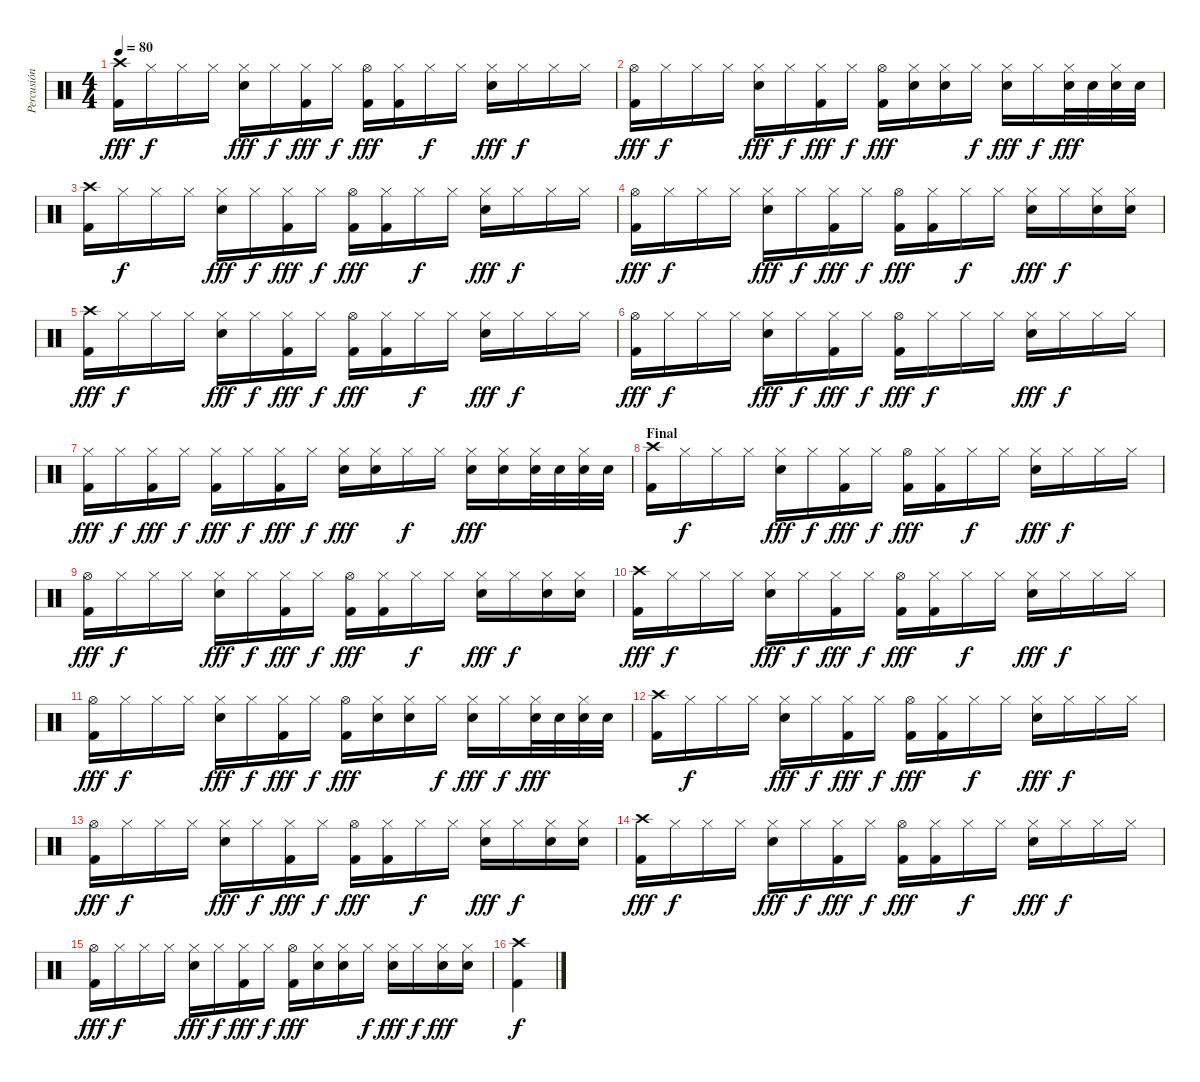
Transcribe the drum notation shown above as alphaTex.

\track ("Percusión" "Percusión") {instrument percussion}
\staff {score}
\articulation defaults
\ts (4 4)
\tempo 80
\clef neutral
\ks c
("Crash high (hit)" "Kick (hit) 2").16{dy fff} "Hi-Hat (closed)".16{dy f} "Hi-Hat (closed)".16 "Hi-Hat (closed)".16 ("Hi-Hat (closed)" "Snare (hit) 2").16{dy fff} "Hi-Hat (closed)".16{dy f} ("Hi-Hat (closed)" "Kick (hit) 2").16{dy fff} "Hi-Hat (closed)".16{dy f} ("Hi-Hat (open)" "Kick (hit) 2").16{dy fff} ("Hi-Hat (closed)" "Kick (hit) 2").16 "Hi-Hat (closed)".16{dy f} "Hi-Hat (closed)".16 ("Hi-Hat (closed)" "Snare (hit) 2").16{dy fff} "Hi-Hat (closed)".16{dy f} "Hi-Hat (closed)".16 "Hi-Hat (closed)".16 |
("Hi-Hat (open)" "Kick (hit) 2").16{dy fff} "Hi-Hat (closed)".16{dy f} "Hi-Hat (closed)".16 "Hi-Hat (closed)".16 ("Hi-Hat (closed)" "Snare (hit) 2").16{dy fff} "Hi-Hat (closed)".16{dy f} ("Hi-Hat (closed)" "Kick (hit) 2").16{dy fff} "Hi-Hat (closed)".16{dy f} ("Hi-Hat (open)" "Kick (hit) 2").16{dy fff} ("Hi-Hat (closed)" "Snare (hit) 2").16 ("Hi-Hat (closed)" "Snare (hit) 2").16 "Hi-Hat (closed)".16{dy f} ("Hi-Hat (closed)" "Snare (hit) 2").16{dy fff} "Hi-Hat (closed)".16{dy f} ("Hi-Hat (closed)" "Snare (hit) 2").32{dy fff} "Snare (hit) 2".32 ("Hi-Hat (closed)" "Snare (hit) 2").32 "Snare (hit) 2".32 |
("Crash high (hit)" "Kick (hit) 2").16 "Hi-Hat (closed)".16{dy f} "Hi-Hat (closed)".16 "Hi-Hat (closed)".16 ("Hi-Hat (closed)" "Snare (hit) 2").16{dy fff} "Hi-Hat (closed)".16{dy f} ("Hi-Hat (closed)" "Kick (hit) 2").16{dy fff} "Hi-Hat (closed)".16{dy f} ("Hi-Hat (open)" "Kick (hit) 2").16{dy fff} ("Hi-Hat (closed)" "Kick (hit) 2").16 "Hi-Hat (closed)".16{dy f} "Hi-Hat (closed)".16 ("Hi-Hat (closed)" "Snare (hit) 2").16{dy fff} "Hi-Hat (closed)".16{dy f} "Hi-Hat (closed)".16 "Hi-Hat (closed)".16 |
("Hi-Hat (open)" "Kick (hit) 2").16{dy fff} "Hi-Hat (closed)".16{dy f} "Hi-Hat (closed)".16 "Hi-Hat (closed)".16 ("Hi-Hat (closed)" "Snare (hit) 2").16{dy fff} "Hi-Hat (closed)".16{dy f} ("Hi-Hat (closed)" "Kick (hit) 2").16{dy fff} "Hi-Hat (closed)".16{dy f} ("Hi-Hat (open)" "Kick (hit) 2").16{dy fff} ("Hi-Hat (closed)" "Kick (hit) 2").16 "Hi-Hat (closed)".16{dy f} "Hi-Hat (closed)".16 ("Hi-Hat (closed)" "Snare (hit) 2").16{dy fff} "Hi-Hat (closed)".16{dy f} ("Hi-Hat (closed)" "Snare (hit) 2").16 ("Hi-Hat (closed)" "Snare (hit) 2").16 |
("Crash high (hit)" "Kick (hit) 2").16{dy fff} "Hi-Hat (closed)".16{dy f} "Hi-Hat (closed)".16 "Hi-Hat (closed)".16 ("Hi-Hat (closed)" "Snare (hit) 2").16{dy fff} "Hi-Hat (closed)".16{dy f} ("Hi-Hat (closed)" "Kick (hit) 2").16{dy fff} "Hi-Hat (closed)".16{dy f} ("Hi-Hat (open)" "Kick (hit) 2").16{dy fff} ("Hi-Hat (closed)" "Kick (hit) 2").16 "Hi-Hat (closed)".16{dy f} "Hi-Hat (closed)".16 ("Hi-Hat (closed)" "Snare (hit) 2").16{dy fff} "Hi-Hat (closed)".16{dy f} "Hi-Hat (closed)".16 "Hi-Hat (closed)".16 |
("Hi-Hat (open)" "Kick (hit) 2").16{dy fff} "Hi-Hat (closed)".16{dy f} "Hi-Hat (closed)".16 "Hi-Hat (closed)".16 ("Hi-Hat (closed)" "Snare (hit) 2").16{dy fff} "Hi-Hat (closed)".16{dy f} ("Hi-Hat (closed)" "Kick (hit) 2").16{dy fff} "Hi-Hat (closed)".16{dy f} ("Hi-Hat (open)" "Kick (hit) 2").16{dy fff} "Hi-Hat (closed)".16{dy f} "Hi-Hat (closed)".16 "Hi-Hat (closed)".16 ("Hi-Hat (closed)" "Snare (hit) 2").16{dy fff} "Hi-Hat (closed)".16{dy f} "Hi-Hat (closed)".16 "Hi-Hat (closed)".16 |
("Hi-Hat (closed)" "Kick (hit) 2").16{dy fff} "Hi-Hat (closed)".16{dy f} ("Hi-Hat (closed)" "Kick (hit) 2").16{dy fff} "Hi-Hat (closed)".16{dy f} ("Hi-Hat (closed)" "Kick (hit) 2").16{dy fff} "Hi-Hat (closed)".16{dy f} ("Hi-Hat (closed)" "Kick (hit) 2").16{dy fff} "Hi-Hat (closed)".16{dy f} ("Hi-Hat (closed)" "Snare (hit) 2").16{dy fff} ("Hi-Hat (closed)" "Snare (hit) 2").16 "Hi-Hat (closed)".16{dy f} "Hi-Hat (closed)".16 ("Hi-Hat (closed)" "Snare (hit) 2").16{dy fff} ("Hi-Hat (closed)" "Snare (hit) 2").16 ("Hi-Hat (closed)" "Snare (hit) 2").32 "Snare (hit) 2".32 ("Hi-Hat (closed)" "Snare (hit) 2").32 "Snare (hit) 2".32 |
\section ("" "Final")
("Crash high (hit)" "Kick (hit) 2").16 "Hi-Hat (closed)".16{dy f} "Hi-Hat (closed)".16 "Hi-Hat (closed)".16 ("Hi-Hat (closed)" "Snare (hit) 2").16{dy fff} "Hi-Hat (closed)".16{dy f} ("Hi-Hat (closed)" "Kick (hit) 2").16{dy fff} "Hi-Hat (closed)".16{dy f} ("Hi-Hat (open)" "Kick (hit) 2").16{dy fff} ("Hi-Hat (closed)" "Kick (hit) 2").16 "Hi-Hat (closed)".16{dy f} "Hi-Hat (closed)".16 ("Hi-Hat (closed)" "Snare (hit) 2").16{dy fff} "Hi-Hat (closed)".16{dy f} "Hi-Hat (closed)".16 "Hi-Hat (closed)".16 |
("Hi-Hat (open)" "Kick (hit) 2").16{dy fff} "Hi-Hat (closed)".16{dy f} "Hi-Hat (closed)".16 "Hi-Hat (closed)".16 ("Hi-Hat (closed)" "Snare (hit) 2").16{dy fff} "Hi-Hat (closed)".16{dy f} ("Hi-Hat (closed)" "Kick (hit) 2").16{dy fff} "Hi-Hat (closed)".16{dy f} ("Hi-Hat (open)" "Kick (hit) 2").16{dy fff} ("Hi-Hat (closed)" "Kick (hit) 2").16 "Hi-Hat (closed)".16{dy f} "Hi-Hat (closed)".16 ("Hi-Hat (closed)" "Snare (hit) 2").16{dy fff} "Hi-Hat (closed)".16{dy f} ("Hi-Hat (closed)" "Snare (hit) 2").16 ("Hi-Hat (closed)" "Snare (hit) 2").16 |
("Crash high (hit)" "Kick (hit) 2").16{dy fff} "Hi-Hat (closed)".16{dy f} "Hi-Hat (closed)".16 "Hi-Hat (closed)".16 ("Hi-Hat (closed)" "Snare (hit) 2").16{dy fff} "Hi-Hat (closed)".16{dy f} ("Hi-Hat (closed)" "Kick (hit) 2").16{dy fff} "Hi-Hat (closed)".16{dy f} ("Hi-Hat (open)" "Kick (hit) 2").16{dy fff} ("Hi-Hat (closed)" "Kick (hit) 2").16 "Hi-Hat (closed)".16{dy f} "Hi-Hat (closed)".16 ("Hi-Hat (closed)" "Snare (hit) 2").16{dy fff} "Hi-Hat (closed)".16{dy f} "Hi-Hat (closed)".16 "Hi-Hat (closed)".16 |
("Hi-Hat (open)" "Kick (hit) 2").16{dy fff} "Hi-Hat (closed)".16{dy f} "Hi-Hat (closed)".16 "Hi-Hat (closed)".16 ("Hi-Hat (closed)" "Snare (hit) 2").16{dy fff} "Hi-Hat (closed)".16{dy f} ("Hi-Hat (closed)" "Kick (hit) 2").16{dy fff} "Hi-Hat (closed)".16{dy f} ("Hi-Hat (open)" "Kick (hit) 2").16{dy fff} ("Hi-Hat (closed)" "Snare (hit) 2").16 ("Hi-Hat (closed)" "Snare (hit) 2").16 "Hi-Hat (closed)".16{dy f} ("Hi-Hat (closed)" "Snare (hit) 2").16{dy fff} "Hi-Hat (closed)".16{dy f} ("Hi-Hat (closed)" "Snare (hit) 2").32{dy fff} "Snare (hit) 2".32 ("Hi-Hat (closed)" "Snare (hit) 2").32 "Snare (hit) 2".32 |
("Crash high (hit)" "Kick (hit) 2").16 "Hi-Hat (closed)".16{dy f} "Hi-Hat (closed)".16 "Hi-Hat (closed)".16 ("Hi-Hat (closed)" "Snare (hit) 2").16{dy fff} "Hi-Hat (closed)".16{dy f} ("Hi-Hat (closed)" "Kick (hit) 2").16{dy fff} "Hi-Hat (closed)".16{dy f} ("Hi-Hat (open)" "Kick (hit) 2").16{dy fff} ("Hi-Hat (closed)" "Kick (hit) 2").16 "Hi-Hat (closed)".16{dy f} "Hi-Hat (closed)".16 ("Hi-Hat (closed)" "Snare (hit) 2").16{dy fff} "Hi-Hat (closed)".16{dy f} "Hi-Hat (closed)".16 "Hi-Hat (closed)".16 |
("Hi-Hat (open)" "Kick (hit) 2").16{dy fff} "Hi-Hat (closed)".16{dy f} "Hi-Hat (closed)".16 "Hi-Hat (closed)".16 ("Hi-Hat (closed)" "Snare (hit) 2").16{dy fff} "Hi-Hat (closed)".16{dy f} ("Hi-Hat (closed)" "Kick (hit) 2").16{dy fff} "Hi-Hat (closed)".16{dy f} ("Hi-Hat (open)" "Kick (hit) 2").16{dy fff} ("Hi-Hat (closed)" "Kick (hit) 2").16 "Hi-Hat (closed)".16{dy f} "Hi-Hat (closed)".16 ("Hi-Hat (closed)" "Snare (hit) 2").16{dy fff} "Hi-Hat (closed)".16{dy f} ("Hi-Hat (closed)" "Snare (hit) 2").16 ("Hi-Hat (closed)" "Snare (hit) 2").16 |
("Crash high (hit)" "Kick (hit) 2").16{dy fff} "Hi-Hat (closed)".16{dy f} "Hi-Hat (closed)".16 "Hi-Hat (closed)".16 ("Hi-Hat (closed)" "Snare (hit) 2").16{dy fff} "Hi-Hat (closed)".16{dy f} ("Hi-Hat (closed)" "Kick (hit) 2").16{dy fff} "Hi-Hat (closed)".16{dy f} ("Hi-Hat (open)" "Kick (hit) 2").16{dy fff} ("Hi-Hat (closed)" "Kick (hit) 2").16 "Hi-Hat (closed)".16{dy f} "Hi-Hat (closed)".16 ("Hi-Hat (closed)" "Snare (hit) 2").16{dy fff} "Hi-Hat (closed)".16{dy f} "Hi-Hat (closed)".16 "Hi-Hat (closed)".16 |
("Hi-Hat (open)" "Kick (hit) 2").16{dy fff} "Hi-Hat (closed)".16{dy f} "Hi-Hat (closed)".16 "Hi-Hat (closed)".16 ("Hi-Hat (closed)" "Snare (hit) 2").16{dy fff} "Hi-Hat (closed)".16{dy f} ("Hi-Hat (closed)" "Kick (hit) 2").16{dy fff} "Hi-Hat (closed)".16{dy f} ("Hi-Hat (open)" "Kick (hit) 2").16{dy fff} ("Hi-Hat (closed)" "Snare (hit) 2").16 ("Hi-Hat (closed)" "Snare (hit) 2").16 "Hi-Hat (closed)".16{dy f} ("Hi-Hat (closed)" "Snare (hit) 2").16{dy fff} "Hi-Hat (closed)".16{dy f} ("Hi-Hat (closed)" "Snare (hit) 2").16{dy fff} ("Hi-Hat (closed)" "Snare (hit) 2").16 |
("Crash high (hit)" "Kick (hit) 2").4{dy f}
